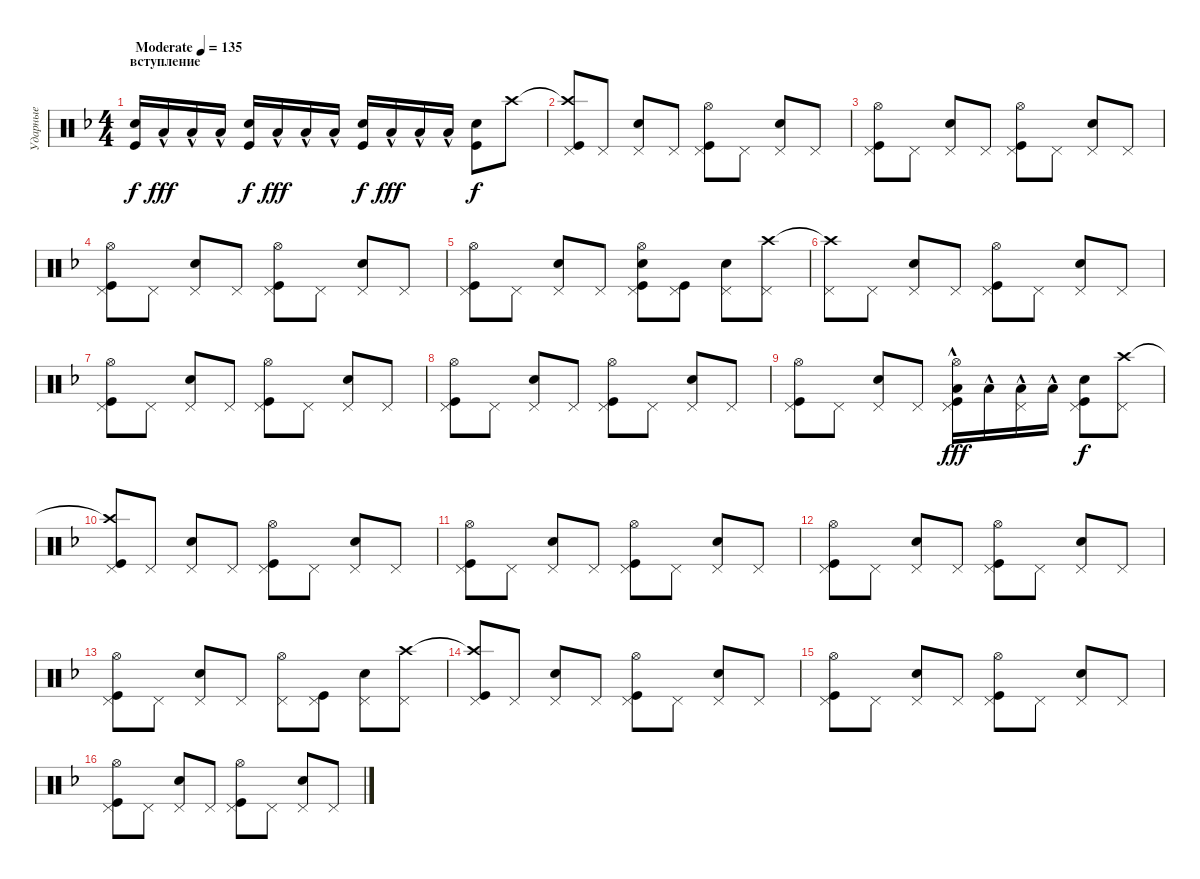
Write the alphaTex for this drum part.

\track ("Ударные" "Ударные") {instrument percussion}
\staff {score}
\articulation defaults
\ts (4 4)
\section ("" "вступление")
\tempo (135 "Moderate")
\clef neutral
\ks dminor
("Kick (hit)" "Snare (hit) 2").16{dy f} "Low Tom (hit)"{hac}.16{dy fff} "Low Tom (hit)"{hac}.16 "Low Tom (hit)"{hac}.16 ("Kick (hit)" "Snare (hit) 2").16{dy f} "Low Tom (hit)"{hac}.16{dy fff} "Low Tom (hit)"{hac}.16 "Low Tom (hit)"{hac}.16 ("Kick (hit)" "Snare (hit) 2").16{dy f} "Low Tom (hit)"{hac}.16{dy fff} "Low Tom (hit)"{hac}.16 "Low Tom (hit)"{hac}.16 ("Snare (hit) 2" "Kick (hit)").8{dy f} "Crash high (hit)".8 |
("Crash high (hit)"{t} "Pedal Hi-Hat (hit)" "Kick (hit)").8 "Pedal Hi-Hat (hit)".8 ("Pedal Hi-Hat (hit)" "Snare (hit) 2").8 "Pedal Hi-Hat (hit)".8 ("Pedal Hi-Hat (hit)" "Kick (hit)" "Hi-Hat (open)").8 "Pedal Hi-Hat (hit)".8 ("Pedal Hi-Hat (hit)" "Snare (hit) 2").8 "Pedal Hi-Hat (hit)".8 |
("Pedal Hi-Hat (hit)" "Kick (hit)" "Hi-Hat (open)").8 "Pedal Hi-Hat (hit)".8 ("Pedal Hi-Hat (hit)" "Snare (hit) 2").8 "Pedal Hi-Hat (hit)".8 ("Pedal Hi-Hat (hit)" "Kick (hit)" "Hi-Hat (open)").8 "Pedal Hi-Hat (hit)".8 ("Pedal Hi-Hat (hit)" "Snare (hit) 2").8 "Pedal Hi-Hat (hit)".8 |
("Pedal Hi-Hat (hit)" "Kick (hit)" "Hi-Hat (open)").8 "Pedal Hi-Hat (hit)".8 ("Pedal Hi-Hat (hit)" "Snare (hit) 2").8 "Pedal Hi-Hat (hit)".8 ("Pedal Hi-Hat (hit)" "Kick (hit)" "Hi-Hat (open)").8 "Pedal Hi-Hat (hit)".8 ("Pedal Hi-Hat (hit)" "Snare (hit) 2").8 "Pedal Hi-Hat (hit)".8 |
("Pedal Hi-Hat (hit)" "Kick (hit)" "Hi-Hat (open)").8 "Pedal Hi-Hat (hit)".8 ("Pedal Hi-Hat (hit)" "Snare (hit) 2").8 "Pedal Hi-Hat (hit)".8 ("Pedal Hi-Hat (hit)" "Kick (hit)" "Hi-Hat (open)" "Snare (hit) 2").8 ("Pedal Hi-Hat (hit)" "Kick (hit)").8 ("Pedal Hi-Hat (hit)" "Snare (hit) 2").8 ("Pedal Hi-Hat (hit)" "Crash high (hit)").8 |
("Pedal Hi-Hat (hit)" "Crash high (hit)"{t}).8 "Pedal Hi-Hat (hit)".8 ("Pedal Hi-Hat (hit)" "Snare (hit) 2").8 "Pedal Hi-Hat (hit)".8 ("Pedal Hi-Hat (hit)" "Kick (hit)" "Hi-Hat (open)").8 "Pedal Hi-Hat (hit)".8 ("Pedal Hi-Hat (hit)" "Snare (hit) 2").8 "Pedal Hi-Hat (hit)".8 |
("Pedal Hi-Hat (hit)" "Kick (hit)" "Hi-Hat (open)").8 "Pedal Hi-Hat (hit)".8 ("Pedal Hi-Hat (hit)" "Snare (hit) 2").8 "Pedal Hi-Hat (hit)".8 ("Pedal Hi-Hat (hit)" "Kick (hit)" "Hi-Hat (open)").8 "Pedal Hi-Hat (hit)".8 ("Pedal Hi-Hat (hit)" "Snare (hit) 2").8 "Pedal Hi-Hat (hit)".8 |
("Pedal Hi-Hat (hit)" "Kick (hit)" "Hi-Hat (open)").8 "Pedal Hi-Hat (hit)".8 ("Pedal Hi-Hat (hit)" "Snare (hit) 2").8 "Pedal Hi-Hat (hit)".8 ("Pedal Hi-Hat (hit)" "Kick (hit)" "Hi-Hat (open)").8 "Pedal Hi-Hat (hit)".8 ("Pedal Hi-Hat (hit)" "Snare (hit) 2").8 "Pedal Hi-Hat (hit)".8 |
("Pedal Hi-Hat (hit)" "Kick (hit)" "Hi-Hat (open)").8 "Pedal Hi-Hat (hit)".8 ("Pedal Hi-Hat (hit)" "Snare (hit) 2").8 "Pedal Hi-Hat (hit)".8 ("Kick (hit)" "Pedal Hi-Hat (hit)" "Low Tom (hit)"{hac} "Hi-Hat (open)").16{dy fff} "Low Tom (hit)"{hac}.16 ("Low Tom (hit)"{hac} "Pedal Hi-Hat (hit)").16 "Low Tom (hit)"{hac}.16 ("Pedal Hi-Hat (hit)" "Kick (hit)" "Snare (hit) 2").8{dy f} ("Crash high (hit)" "Pedal Hi-Hat (hit)").8 |
("Crash high (hit)"{t} "Kick (hit)" "Pedal Hi-Hat (hit)").8 "Pedal Hi-Hat (hit)".8 ("Pedal Hi-Hat (hit)" "Snare (hit) 2").8 "Pedal Hi-Hat (hit)".8 ("Pedal Hi-Hat (hit)" "Kick (hit)" "Hi-Hat (open)").8 "Pedal Hi-Hat (hit)".8 ("Pedal Hi-Hat (hit)" "Snare (hit) 2").8 "Pedal Hi-Hat (hit)".8 |
("Pedal Hi-Hat (hit)" "Kick (hit)" "Hi-Hat (open)").8 "Pedal Hi-Hat (hit)".8 ("Pedal Hi-Hat (hit)" "Snare (hit) 2").8 "Pedal Hi-Hat (hit)".8 ("Pedal Hi-Hat (hit)" "Kick (hit)" "Hi-Hat (open)").8 "Pedal Hi-Hat (hit)".8 ("Pedal Hi-Hat (hit)" "Snare (hit) 2").8 "Pedal Hi-Hat (hit)".8 |
("Pedal Hi-Hat (hit)" "Kick (hit)" "Hi-Hat (open)").8 "Pedal Hi-Hat (hit)".8 ("Pedal Hi-Hat (hit)" "Snare (hit) 2").8 "Pedal Hi-Hat (hit)".8 ("Pedal Hi-Hat (hit)" "Kick (hit)" "Hi-Hat (open)").8 "Pedal Hi-Hat (hit)".8 ("Pedal Hi-Hat (hit)" "Snare (hit) 2").8 "Pedal Hi-Hat (hit)".8 |
("Pedal Hi-Hat (hit)" "Kick (hit)" "Hi-Hat (open)").8 "Pedal Hi-Hat (hit)".8 ("Pedal Hi-Hat (hit)" "Snare (hit) 2").8 "Pedal Hi-Hat (hit)".8 ("Hi-Hat (open)" "Pedal Hi-Hat (hit)").8 ("Pedal Hi-Hat (hit)" "Kick (hit)").8 ("Pedal Hi-Hat (hit)" "Snare (hit) 2").8 ("Crash high (hit)" "Pedal Hi-Hat (hit)").8 |
("Crash high (hit)"{t} "Kick (hit)" "Pedal Hi-Hat (hit)").8 "Pedal Hi-Hat (hit)".8 ("Pedal Hi-Hat (hit)" "Snare (hit) 2").8 "Pedal Hi-Hat (hit)".8 ("Pedal Hi-Hat (hit)" "Hi-Hat (open)" "Kick (hit)").8 "Pedal Hi-Hat (hit)".8 ("Pedal Hi-Hat (hit)" "Snare (hit) 2").8 "Pedal Hi-Hat (hit)".8 |
("Pedal Hi-Hat (hit)" "Kick (hit)" "Hi-Hat (open)").8 "Pedal Hi-Hat (hit)".8 ("Pedal Hi-Hat (hit)" "Snare (hit) 2").8 "Pedal Hi-Hat (hit)".8 ("Pedal Hi-Hat (hit)" "Kick (hit)" "Hi-Hat (open)").8 "Pedal Hi-Hat (hit)".8 ("Pedal Hi-Hat (hit)" "Snare (hit) 2").8 "Pedal Hi-Hat (hit)".8 |
("Pedal Hi-Hat (hit)" "Kick (hit)" "Hi-Hat (open)").8 "Pedal Hi-Hat (hit)".8 ("Pedal Hi-Hat (hit)" "Snare (hit) 2").8 "Pedal Hi-Hat (hit)".8 ("Pedal Hi-Hat (hit)" "Kick (hit)" "Hi-Hat (open)").8 "Pedal Hi-Hat (hit)".8 ("Pedal Hi-Hat (hit)" "Snare (hit) 2").8 "Pedal Hi-Hat (hit)".8
